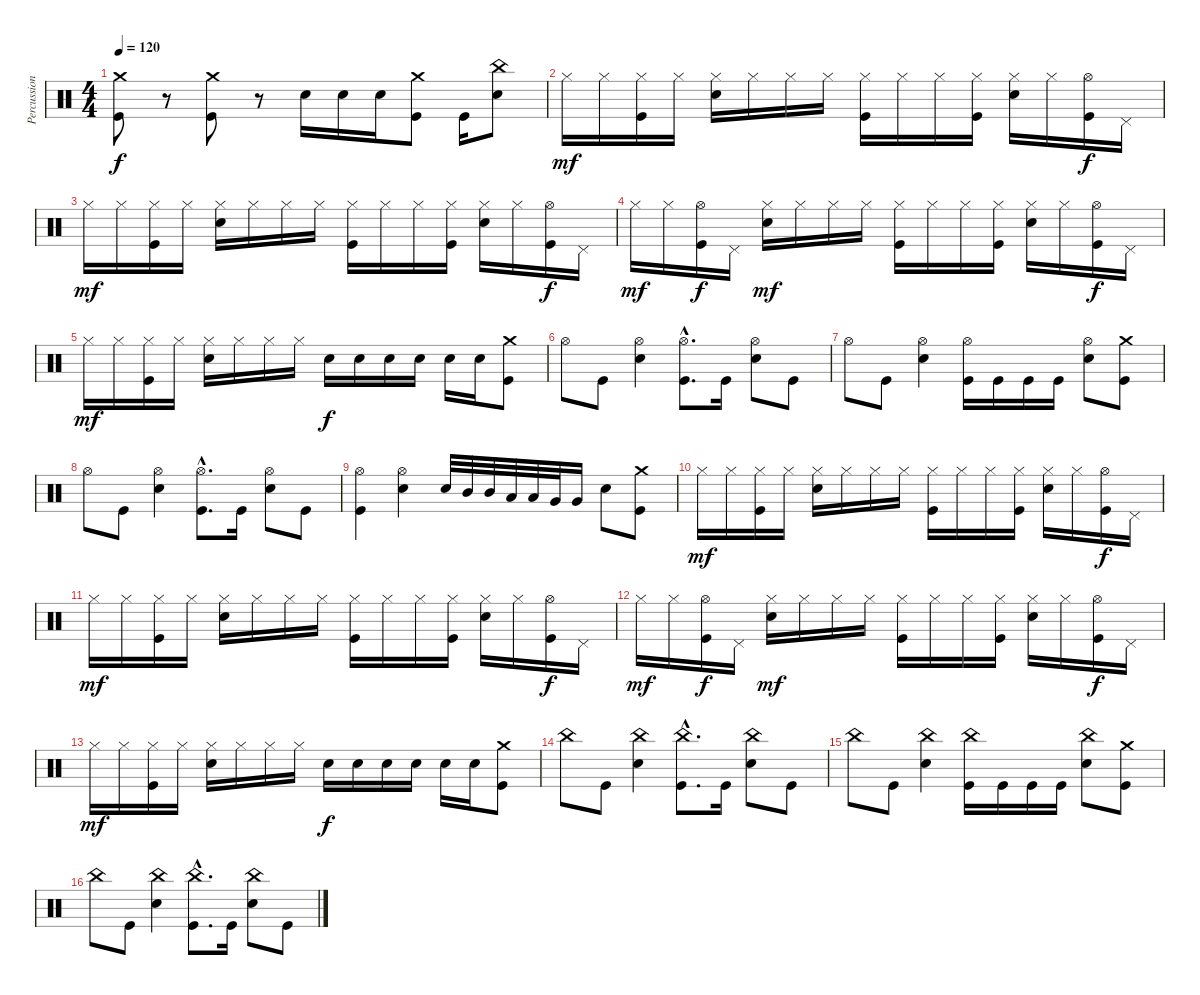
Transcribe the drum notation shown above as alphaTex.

\track ("Percussions" "Percussion") {instrument percussion}
\staff {score}
\articulation defaults
\ts (4 4)
\tempo 120
\clef neutral
\ks c
("Kick (hit)" "Crash medium (hit)").8{dy f} r.8 ("Kick (hit)" "Crash medium (hit)").8 r.8 "Electric Snare (hit)".16 "Electric Snare (hit)".16 "Electric Snare (hit)".16 ("Kick (hit)" "Crash medium (hit)").8 "Kick (hit)".16 ("Electric Snare (hit)" "China (hit)").8 |
"Hi-Hat (closed)".16{dy mf} "Hi-Hat (closed)".16 ("Kick (hit)" "Hi-Hat (closed)").16 "Hi-Hat (closed)".16 ("Electric Snare (hit)" "Hi-Hat (closed)").16 "Hi-Hat (closed)".16 "Hi-Hat (closed)".16 "Hi-Hat (closed)".16 ("Kick (hit)" "Hi-Hat (closed)").16 "Hi-Hat (closed)".16 "Hi-Hat (closed)".16 ("Kick (hit)" "Hi-Hat (closed)").16 ("Electric Snare (hit)" "Hi-Hat (closed)").16 "Hi-Hat (closed)".16 ("Kick (hit)" "Hi-Hat (open)").16{dy f} "Pedal Hi-Hat (hit)".16 |
"Hi-Hat (closed)".16{dy mf} "Hi-Hat (closed)".16 ("Kick (hit)" "Hi-Hat (closed)").16 "Hi-Hat (closed)".16 ("Electric Snare (hit)" "Hi-Hat (closed)").16 "Hi-Hat (closed)".16 "Hi-Hat (closed)".16 "Hi-Hat (closed)".16 ("Kick (hit)" "Hi-Hat (closed)").16 "Hi-Hat (closed)".16 "Hi-Hat (closed)".16 ("Kick (hit)" "Hi-Hat (closed)").16 ("Electric Snare (hit)" "Hi-Hat (closed)").16 "Hi-Hat (closed)".16 ("Kick (hit)" "Hi-Hat (open)").16{dy f} "Pedal Hi-Hat (hit)".16 |
"Hi-Hat (closed)".16{dy mf} "Hi-Hat (closed)".16 ("Kick (hit)" "Hi-Hat (open)").16{dy f} "Pedal Hi-Hat (hit)".16 ("Electric Snare (hit)" "Hi-Hat (closed)").16{dy mf} "Hi-Hat (closed)".16 "Hi-Hat (closed)".16 "Hi-Hat (closed)".16 ("Kick (hit)" "Hi-Hat (closed)").16 "Hi-Hat (closed)".16 "Hi-Hat (closed)".16 ("Kick (hit)" "Hi-Hat (closed)").16 ("Electric Snare (hit)" "Hi-Hat (closed)").16 "Hi-Hat (closed)".16 ("Kick (hit)" "Hi-Hat (open)").16{dy f} "Pedal Hi-Hat (hit)".16 |
"Hi-Hat (closed)".16{dy mf} "Hi-Hat (closed)".16 ("Kick (hit)" "Hi-Hat (closed)").16 "Hi-Hat (closed)".16 ("Electric Snare (hit)" "Hi-Hat (closed)").16 "Hi-Hat (closed)".16 "Hi-Hat (closed)".16 "Hi-Hat (closed)".16 "Electric Snare (hit)".16{dy f} "Electric Snare (hit)".16 "Electric Snare (hit)".16 "Electric Snare (hit)".16 "Electric Snare (hit)".16 "Electric Snare (hit)".16 ("Kick (hit)" "Crash medium (hit)").8 |
"Hi-Hat (open)".8 "Kick (hit)".8 ("Electric Snare (hit)" "Hi-Hat (open)").4 ("Kick (hit)"{hac} "Hi-Hat (open)"{hac}).8{d} "Kick (hit)".16 ("Electric Snare (hit)" "Hi-Hat (open)").8 "Kick (hit)".8 |
"Hi-Hat (open)".8 "Kick (hit)".8 ("Electric Snare (hit)" "Hi-Hat (open)").4 ("Kick (hit)" "Hi-Hat (open)").16 "Kick (hit)".16 "Kick (hit)".16 "Kick (hit)".16 ("Electric Snare (hit)" "Hi-Hat (open)").8 ("Kick (hit)" "Crash medium (hit)").8 |
"Hi-Hat (open)".8 "Kick (hit)".8 ("Electric Snare (hit)" "Hi-Hat (open)").4 ("Kick (hit)"{hac} "Hi-Hat (open)"{hac}).8{d} "Kick (hit)".16 ("Electric Snare (hit)" "Hi-Hat (open)").8 "Kick (hit)".8 |
("Kick (hit)" "Hi-Hat (open)").4 ("Electric Snare (hit)" "Hi-Hat (open)").4 "Electric Snare (hit)".32 "Mid Tom (hit)".32 "Mid Tom (hit)".32 "Low Tom (hit)".32 "Low Tom (hit)".32 "Very Low Tom (hit)".32 "Very Low Tom (hit)".16 "Electric Snare (hit)".8 ("Kick (hit)" "Crash medium (hit)").8 |
"Hi-Hat (closed)".16{dy mf} "Hi-Hat (closed)".16 ("Kick (hit)" "Hi-Hat (closed)").16 "Hi-Hat (closed)".16 ("Electric Snare (hit)" "Hi-Hat (closed)").16 "Hi-Hat (closed)".16 "Hi-Hat (closed)".16 "Hi-Hat (closed)".16 ("Kick (hit)" "Hi-Hat (closed)").16 "Hi-Hat (closed)".16 "Hi-Hat (closed)".16 ("Kick (hit)" "Hi-Hat (closed)").16 ("Electric Snare (hit)" "Hi-Hat (closed)").16 "Hi-Hat (closed)".16 ("Kick (hit)" "Hi-Hat (open)").16{dy f} "Pedal Hi-Hat (hit)".16 |
"Hi-Hat (closed)".16{dy mf} "Hi-Hat (closed)".16 ("Kick (hit)" "Hi-Hat (closed)").16 "Hi-Hat (closed)".16 ("Electric Snare (hit)" "Hi-Hat (closed)").16 "Hi-Hat (closed)".16 "Hi-Hat (closed)".16 "Hi-Hat (closed)".16 ("Kick (hit)" "Hi-Hat (closed)").16 "Hi-Hat (closed)".16 "Hi-Hat (closed)".16 ("Kick (hit)" "Hi-Hat (closed)").16 ("Electric Snare (hit)" "Hi-Hat (closed)").16 "Hi-Hat (closed)".16 ("Kick (hit)" "Hi-Hat (open)").16{dy f} "Pedal Hi-Hat (hit)".16 |
"Hi-Hat (closed)".16{dy mf} "Hi-Hat (closed)".16 ("Kick (hit)" "Hi-Hat (open)").16{dy f} "Pedal Hi-Hat (hit)".16 ("Electric Snare (hit)" "Hi-Hat (closed)").16{dy mf} "Hi-Hat (closed)".16 "Hi-Hat (closed)".16 "Hi-Hat (closed)".16 ("Kick (hit)" "Hi-Hat (closed)").16 "Hi-Hat (closed)".16 "Hi-Hat (closed)".16 ("Kick (hit)" "Hi-Hat (closed)").16 ("Electric Snare (hit)" "Hi-Hat (closed)").16 "Hi-Hat (closed)".16 ("Kick (hit)" "Hi-Hat (open)").16{dy f} "Pedal Hi-Hat (hit)".16 |
"Hi-Hat (closed)".16{dy mf} "Hi-Hat (closed)".16 ("Kick (hit)" "Hi-Hat (closed)").16 "Hi-Hat (closed)".16 ("Electric Snare (hit)" "Hi-Hat (closed)").16 "Hi-Hat (closed)".16 "Hi-Hat (closed)".16 "Hi-Hat (closed)".16 "Electric Snare (hit)".16{dy f} "Electric Snare (hit)".16 "Electric Snare (hit)".16 "Electric Snare (hit)".16 "Electric Snare (hit)".16 "Electric Snare (hit)".16 ("Kick (hit)" "Crash medium (hit)").8 |
"China (hit)".8 "Kick (hit)".8 ("Electric Snare (hit)" "China (hit)").4 ("Kick (hit)"{hac} "China (hit)"{hac}).8{d} "Kick (hit)".16 ("Electric Snare (hit)" "China (hit)").8 "Kick (hit)".8 |
"China (hit)".8 "Kick (hit)".8 ("Electric Snare (hit)" "China (hit)").4 ("Kick (hit)" "China (hit)").16 "Kick (hit)".16 "Kick (hit)".16 "Kick (hit)".16 ("Electric Snare (hit)" "China (hit)").8 ("Kick (hit)" "Crash medium (hit)").8 |
"China (hit)".8 "Kick (hit)".8 ("Electric Snare (hit)" "China (hit)").4 ("Kick (hit)"{hac} "China (hit)"{hac}).8{d} "Kick (hit)".16 ("Electric Snare (hit)" "China (hit)").8 "Kick (hit)".8
